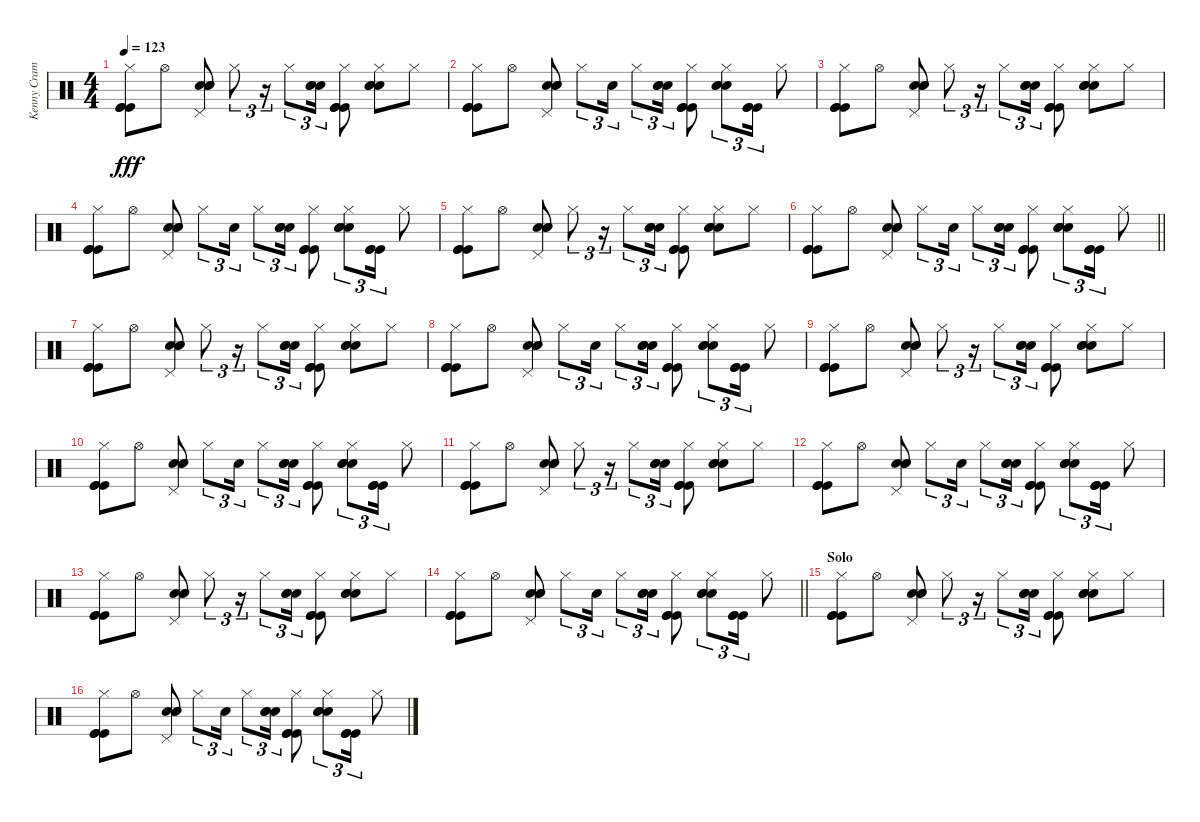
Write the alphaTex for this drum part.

\track ("Kenny Cramme - Drums" "Kenny Cram") {instrument percussion}
\staff {score}
\articulation defaults
\ts (4 4)
\tempo 123
\clef neutral
\ks c
("Hi-Hat (closed)" "Kick (hit)" "Kick (hit)" "Kick (hit)").8{dy fff} "Hi-Hat (open)".8 ("Pedal Hi-Hat (hit)" "Snare (hit) 2" "Snare (hit) 2" "Snare (hit) 2").8 "Hi-Hat (closed)".8{tu (3 2)} r.16{tu (3 2)} "Hi-Hat (closed)".8{tu (3 2)} ("Snare (hit) 2" "Snare (hit) 2" "Snare (hit) 2").16{tu (3 2)} ("Hi-Hat (closed)" "Kick (hit)" "Kick (hit)" "Kick (hit)").8 ("Hi-Hat (closed)" "Snare (hit) 2" "Snare (hit) 2" "Snare (hit) 2").8 "Hi-Hat (closed)".8 |
("Hi-Hat (closed)" "Kick (hit)" "Kick (hit)" "Kick (hit)").8 "Hi-Hat (open)".8 ("Pedal Hi-Hat (hit)" "Snare (hit) 2" "Snare (hit) 2" "Snare (hit) 2").8 "Hi-Hat (closed)".8{tu (3 2)} "Snare (hit) 2".16{tu (3 2)} "Hi-Hat (closed)".8{tu (3 2)} ("Snare (hit) 2" "Snare (hit) 2" "Snare (hit) 2").16{tu (3 2)} ("Hi-Hat (closed)" "Kick (hit)" "Kick (hit)" "Kick (hit)").8 ("Hi-Hat (closed)" "Snare (hit) 2" "Snare (hit) 2" "Snare (hit) 2").8{tu (3 2)} ("Kick (hit)" "Kick (hit)" "Kick (hit)").16{tu (3 2)} "Hi-Hat (closed)".8 |
("Hi-Hat (closed)" "Kick (hit)" "Kick (hit)" "Kick (hit)").8 "Hi-Hat (open)".8 ("Pedal Hi-Hat (hit)" "Snare (hit) 2" "Snare (hit) 2" "Snare (hit) 2").8 "Hi-Hat (closed)".8{tu (3 2)} r.16{tu (3 2)} "Hi-Hat (closed)".8{tu (3 2)} ("Snare (hit) 2" "Snare (hit) 2" "Snare (hit) 2").16{tu (3 2)} ("Hi-Hat (closed)" "Kick (hit)" "Kick (hit)" "Kick (hit)").8 ("Hi-Hat (closed)" "Snare (hit) 2" "Snare (hit) 2" "Snare (hit) 2").8 "Hi-Hat (closed)".8 |
("Hi-Hat (closed)" "Kick (hit)" "Kick (hit)" "Kick (hit)").8 "Hi-Hat (open)".8 ("Pedal Hi-Hat (hit)" "Snare (hit) 2" "Snare (hit) 2" "Snare (hit) 2").8 "Hi-Hat (closed)".8{tu (3 2)} "Snare (hit) 2".16{tu (3 2)} "Hi-Hat (closed)".8{tu (3 2)} ("Snare (hit) 2" "Snare (hit) 2" "Snare (hit) 2").16{tu (3 2)} ("Hi-Hat (closed)" "Kick (hit)" "Kick (hit)" "Kick (hit)").8 ("Hi-Hat (closed)" "Snare (hit) 2" "Snare (hit) 2" "Snare (hit) 2").8{tu (3 2)} ("Kick (hit)" "Kick (hit)" "Kick (hit)").16{tu (3 2)} "Hi-Hat (closed)".8 |
("Hi-Hat (closed)" "Kick (hit)" "Kick (hit)" "Kick (hit)").8 "Hi-Hat (open)".8 ("Pedal Hi-Hat (hit)" "Snare (hit) 2" "Snare (hit) 2" "Snare (hit) 2").8 "Hi-Hat (closed)".8{tu (3 2)} r.16{tu (3 2)} "Hi-Hat (closed)".8{tu (3 2)} ("Snare (hit) 2" "Snare (hit) 2" "Snare (hit) 2").16{tu (3 2)} ("Hi-Hat (closed)" "Kick (hit)" "Kick (hit)" "Kick (hit)").8 ("Hi-Hat (closed)" "Snare (hit) 2" "Snare (hit) 2" "Snare (hit) 2").8 "Hi-Hat (closed)".8 |
\barLineRight lightlight
("Hi-Hat (closed)" "Kick (hit)" "Kick (hit)" "Kick (hit)").8 "Hi-Hat (open)".8 ("Pedal Hi-Hat (hit)" "Snare (hit) 2" "Snare (hit) 2" "Snare (hit) 2").8 "Hi-Hat (closed)".8{tu (3 2)} "Snare (hit) 2".16{tu (3 2)} "Hi-Hat (closed)".8{tu (3 2)} ("Snare (hit) 2" "Snare (hit) 2" "Snare (hit) 2").16{tu (3 2)} ("Hi-Hat (closed)" "Kick (hit)" "Kick (hit)" "Kick (hit)").8 ("Hi-Hat (closed)" "Snare (hit) 2" "Snare (hit) 2" "Snare (hit) 2").8{tu (3 2)} ("Kick (hit)" "Kick (hit)" "Kick (hit)").16{tu (3 2)} "Hi-Hat (closed)".8 |
("Hi-Hat (closed)" "Kick (hit)" "Kick (hit)" "Kick (hit)").8 "Hi-Hat (open)".8 ("Pedal Hi-Hat (hit)" "Snare (hit) 2" "Snare (hit) 2" "Snare (hit) 2").8 "Hi-Hat (closed)".8{tu (3 2)} r.16{tu (3 2)} "Hi-Hat (closed)".8{tu (3 2)} ("Snare (hit) 2" "Snare (hit) 2" "Snare (hit) 2").16{tu (3 2)} ("Hi-Hat (closed)" "Kick (hit)" "Kick (hit)" "Kick (hit)").8 ("Hi-Hat (closed)" "Snare (hit) 2" "Snare (hit) 2" "Snare (hit) 2").8 "Hi-Hat (closed)".8 |
("Hi-Hat (closed)" "Kick (hit)" "Kick (hit)" "Kick (hit)").8 "Hi-Hat (open)".8 ("Pedal Hi-Hat (hit)" "Snare (hit) 2" "Snare (hit) 2" "Snare (hit) 2").8 "Hi-Hat (closed)".8{tu (3 2)} "Snare (hit) 2".16{tu (3 2)} "Hi-Hat (closed)".8{tu (3 2)} ("Snare (hit) 2" "Snare (hit) 2" "Snare (hit) 2").16{tu (3 2)} ("Hi-Hat (closed)" "Kick (hit)" "Kick (hit)" "Kick (hit)").8 ("Hi-Hat (closed)" "Snare (hit) 2" "Snare (hit) 2" "Snare (hit) 2").8{tu (3 2)} ("Kick (hit)" "Kick (hit)" "Kick (hit)").16{tu (3 2)} "Hi-Hat (closed)".8 |
("Hi-Hat (closed)" "Kick (hit)" "Kick (hit)" "Kick (hit)").8 "Hi-Hat (open)".8 ("Pedal Hi-Hat (hit)" "Snare (hit) 2" "Snare (hit) 2" "Snare (hit) 2").8 "Hi-Hat (closed)".8{tu (3 2)} r.16{tu (3 2)} "Hi-Hat (closed)".8{tu (3 2)} ("Snare (hit) 2" "Snare (hit) 2" "Snare (hit) 2").16{tu (3 2)} ("Hi-Hat (closed)" "Kick (hit)" "Kick (hit)" "Kick (hit)").8 ("Hi-Hat (closed)" "Snare (hit) 2" "Snare (hit) 2" "Snare (hit) 2").8 "Hi-Hat (closed)".8 |
("Hi-Hat (closed)" "Kick (hit)" "Kick (hit)" "Kick (hit)").8 "Hi-Hat (open)".8 ("Pedal Hi-Hat (hit)" "Snare (hit) 2" "Snare (hit) 2" "Snare (hit) 2").8 "Hi-Hat (closed)".8{tu (3 2)} "Snare (hit) 2".16{tu (3 2)} "Hi-Hat (closed)".8{tu (3 2)} ("Snare (hit) 2" "Snare (hit) 2" "Snare (hit) 2").16{tu (3 2)} ("Hi-Hat (closed)" "Kick (hit)" "Kick (hit)" "Kick (hit)").8 ("Hi-Hat (closed)" "Snare (hit) 2" "Snare (hit) 2" "Snare (hit) 2").8{tu (3 2)} ("Kick (hit)" "Kick (hit)" "Kick (hit)").16{tu (3 2)} "Hi-Hat (closed)".8 |
("Hi-Hat (closed)" "Kick (hit)" "Kick (hit)" "Kick (hit)").8 "Hi-Hat (open)".8 ("Pedal Hi-Hat (hit)" "Snare (hit) 2" "Snare (hit) 2" "Snare (hit) 2").8 "Hi-Hat (closed)".8{tu (3 2)} r.16{tu (3 2)} "Hi-Hat (closed)".8{tu (3 2)} ("Snare (hit) 2" "Snare (hit) 2" "Snare (hit) 2").16{tu (3 2)} ("Hi-Hat (closed)" "Kick (hit)" "Kick (hit)" "Kick (hit)").8 ("Hi-Hat (closed)" "Snare (hit) 2" "Snare (hit) 2" "Snare (hit) 2").8 "Hi-Hat (closed)".8 |
("Hi-Hat (closed)" "Kick (hit)" "Kick (hit)" "Kick (hit)").8 "Hi-Hat (open)".8 ("Pedal Hi-Hat (hit)" "Snare (hit) 2" "Snare (hit) 2" "Snare (hit) 2").8 "Hi-Hat (closed)".8{tu (3 2)} "Snare (hit) 2".16{tu (3 2)} "Hi-Hat (closed)".8{tu (3 2)} ("Snare (hit) 2" "Snare (hit) 2" "Snare (hit) 2").16{tu (3 2)} ("Hi-Hat (closed)" "Kick (hit)" "Kick (hit)" "Kick (hit)").8 ("Hi-Hat (closed)" "Snare (hit) 2" "Snare (hit) 2" "Snare (hit) 2").8{tu (3 2)} ("Kick (hit)" "Kick (hit)" "Kick (hit)").16{tu (3 2)} "Hi-Hat (closed)".8 |
("Hi-Hat (closed)" "Kick (hit)" "Kick (hit)" "Kick (hit)").8 "Hi-Hat (open)".8 ("Pedal Hi-Hat (hit)" "Snare (hit) 2" "Snare (hit) 2" "Snare (hit) 2").8 "Hi-Hat (closed)".8{tu (3 2)} r.16{tu (3 2)} "Hi-Hat (closed)".8{tu (3 2)} ("Snare (hit) 2" "Snare (hit) 2" "Snare (hit) 2").16{tu (3 2)} ("Hi-Hat (closed)" "Kick (hit)" "Kick (hit)" "Kick (hit)").8 ("Hi-Hat (closed)" "Snare (hit) 2" "Snare (hit) 2" "Snare (hit) 2").8 "Hi-Hat (closed)".8 |
\barLineRight lightlight
("Hi-Hat (closed)" "Kick (hit)" "Kick (hit)" "Kick (hit)").8 "Hi-Hat (open)".8 ("Pedal Hi-Hat (hit)" "Snare (hit) 2" "Snare (hit) 2" "Snare (hit) 2").8 "Hi-Hat (closed)".8{tu (3 2)} "Snare (hit) 2".16{tu (3 2)} "Hi-Hat (closed)".8{tu (3 2)} ("Snare (hit) 2" "Snare (hit) 2" "Snare (hit) 2").16{tu (3 2)} ("Hi-Hat (closed)" "Kick (hit)" "Kick (hit)" "Kick (hit)").8 ("Hi-Hat (closed)" "Snare (hit) 2" "Snare (hit) 2" "Snare (hit) 2").8{tu (3 2)} ("Kick (hit)" "Kick (hit)" "Kick (hit)").16{tu (3 2)} "Hi-Hat (closed)".8 |
\section ("" "Solo")
("Hi-Hat (closed)" "Kick (hit)" "Kick (hit)" "Kick (hit)").8 "Hi-Hat (open)".8 ("Pedal Hi-Hat (hit)" "Snare (hit) 2" "Snare (hit) 2" "Snare (hit) 2").8 "Hi-Hat (closed)".8{tu (3 2)} r.16{tu (3 2)} "Hi-Hat (closed)".8{tu (3 2)} ("Snare (hit) 2" "Snare (hit) 2" "Snare (hit) 2").16{tu (3 2)} ("Hi-Hat (closed)" "Kick (hit)" "Kick (hit)" "Kick (hit)").8 ("Hi-Hat (closed)" "Snare (hit) 2" "Snare (hit) 2" "Snare (hit) 2").8 "Hi-Hat (closed)".8 |
("Hi-Hat (closed)" "Kick (hit)" "Kick (hit)" "Kick (hit)").8 "Hi-Hat (open)".8 ("Pedal Hi-Hat (hit)" "Snare (hit) 2" "Snare (hit) 2" "Snare (hit) 2").8 "Hi-Hat (closed)".8{tu (3 2)} "Snare (hit) 2".16{tu (3 2)} "Hi-Hat (closed)".8{tu (3 2)} ("Snare (hit) 2" "Snare (hit) 2" "Snare (hit) 2").16{tu (3 2)} ("Hi-Hat (closed)" "Kick (hit)" "Kick (hit)" "Kick (hit)").8 ("Hi-Hat (closed)" "Snare (hit) 2" "Snare (hit) 2" "Snare (hit) 2").8{tu (3 2)} ("Kick (hit)" "Kick (hit)" "Kick (hit)").16{tu (3 2)} "Hi-Hat (closed)".8
